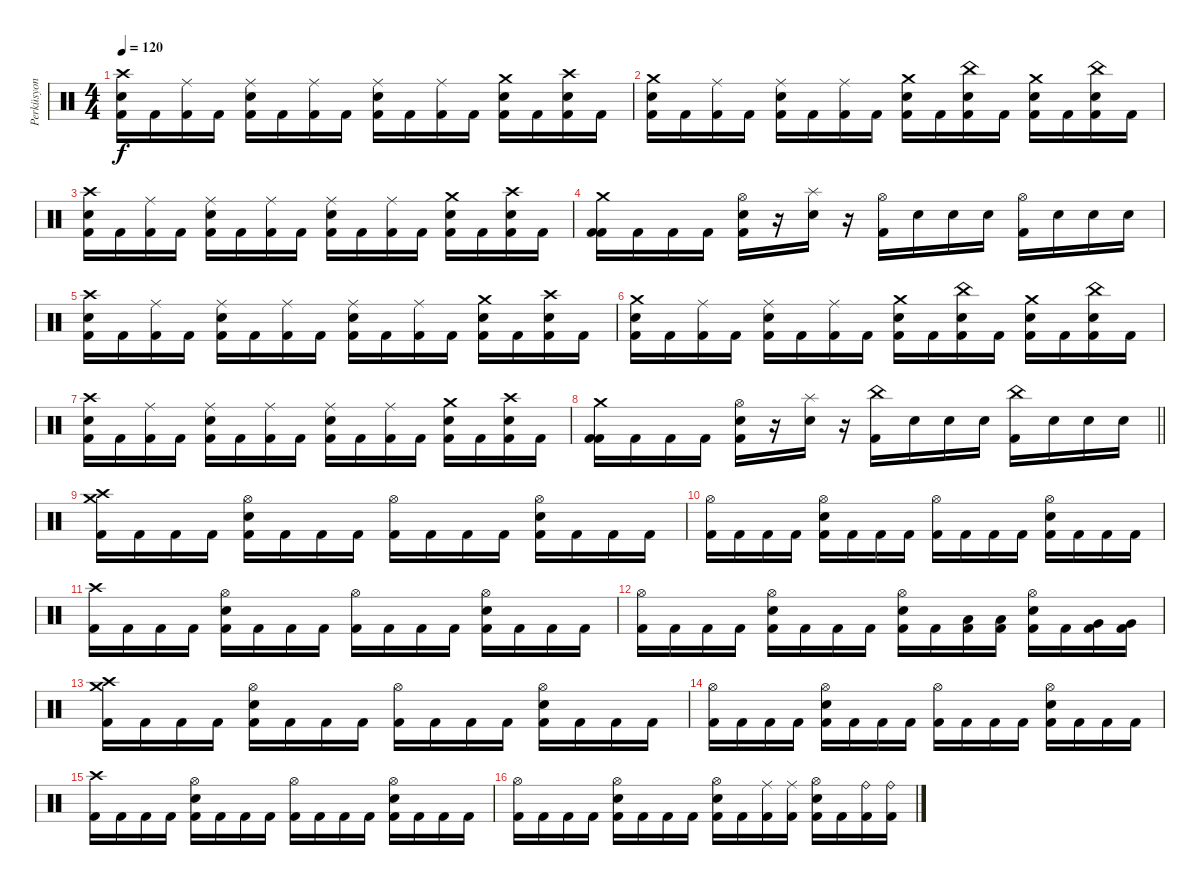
\track ("Perküsyon" "Perküsyon") {instrument percussion}
\staff {score}
\articulation defaults
\ts (4 4)
\section ("" "")
\tempo 120
\clef neutral
\ks c
("Crash high (hit)" "Snare (hit) 2" "Kick (hit) 2").16{dy f} "Kick (hit) 2".16 ("Ride (middle)" "Kick (hit) 2").16 "Kick (hit) 2".16 ("Ride (middle)" "Snare (hit) 2" "Kick (hit) 2").16 "Kick (hit) 2".16 ("Ride (middle)" "Kick (hit) 2").16 "Kick (hit) 2".16 ("Ride (middle)" "Snare (hit) 2" "Kick (hit) 2").16 "Kick (hit) 2".16 ("Ride (middle)" "Kick (hit) 2").16 "Kick (hit) 2".16 ("Crash medium (hit)" "Snare (hit) 2" "Kick (hit) 2").16 "Kick (hit) 2".16 ("Crash high (hit)" "Snare (hit) 2" "Kick (hit) 2").16 "Kick (hit) 2".16 |
("Crash medium (hit)" "Snare (hit) 2" "Kick (hit) 2").16 "Kick (hit) 2".16 ("Ride (middle)" "Kick (hit) 2").16 "Kick (hit) 2".16 ("Ride (middle)" "Snare (hit) 2" "Kick (hit) 2").16 "Kick (hit) 2".16 ("Ride (middle)" "Kick (hit) 2").16 "Kick (hit) 2".16 ("Crash medium (hit)" "Snare (hit) 2" "Kick (hit) 2").16 "Kick (hit) 2".16 ("China (hit)" "Snare (hit) 2" "Kick (hit) 2").16 "Kick (hit) 2".16 ("Crash medium (hit)" "Snare (hit) 2" "Kick (hit) 2").16 "Kick (hit) 2".16 ("China (hit)" "Snare (hit) 2" "Kick (hit) 2").16 "Kick (hit) 2".16 |
("Crash high (hit)" "Snare (hit) 2" "Kick (hit) 2").16 "Kick (hit) 2".16 ("Ride (middle)" "Kick (hit) 2").16 "Kick (hit) 2".16 ("Ride (middle)" "Snare (hit) 2" "Kick (hit) 2").16 "Kick (hit) 2".16 ("Ride (middle)" "Kick (hit) 2").16 "Kick (hit) 2".16 ("Ride (middle)" "Snare (hit) 2" "Kick (hit) 2").16 "Kick (hit) 2".16 ("Ride (middle)" "Kick (hit) 2").16 "Kick (hit) 2".16 ("Crash medium (hit)" "Snare (hit) 2" "Kick (hit) 2").16 "Kick (hit) 2".16 ("Crash high (hit)" "Snare (hit) 2" "Kick (hit) 2").16 "Kick (hit) 2".16 |
("Crash medium (hit)" "Kick (hit) 2" "Kick (hit) 2").16 "Kick (hit) 2".16 "Kick (hit) 2".16 "Kick (hit) 2".16 ("Hi-Hat (open)" "Snare (hit) 2" "Kick (hit) 2").16 r.16 ("Splash (hit)" "Snare (hit) 2").16 r.16 ("Hi-Hat (open)" "Kick (hit) 2").16 "Snare (hit) 2".16 "Snare (hit) 2".16 "Snare (hit) 2".16 ("Hi-Hat (open)" "Kick (hit) 2").16 "Snare (hit) 2".16 "Snare (hit) 2".16 "Snare (hit) 2".16 |
("Crash high (hit)" "Snare (hit) 2" "Kick (hit) 2").16 "Kick (hit) 2".16 ("Ride (middle)" "Kick (hit) 2").16 "Kick (hit) 2".16 ("Ride (middle)" "Snare (hit) 2" "Kick (hit) 2").16 "Kick (hit) 2".16 ("Ride (middle)" "Kick (hit) 2").16 "Kick (hit) 2".16 ("Ride (middle)" "Snare (hit) 2" "Kick (hit) 2").16 "Kick (hit) 2".16 ("Ride (middle)" "Kick (hit) 2").16 "Kick (hit) 2".16 ("Crash medium (hit)" "Snare (hit) 2" "Kick (hit) 2").16 "Kick (hit) 2".16 ("Crash high (hit)" "Snare (hit) 2" "Kick (hit) 2").16 "Kick (hit) 2".16 |
("Crash medium (hit)" "Snare (hit) 2" "Kick (hit) 2").16 "Kick (hit) 2".16 ("Ride (middle)" "Kick (hit) 2").16 "Kick (hit) 2".16 ("Ride (middle)" "Snare (hit) 2" "Kick (hit) 2").16 "Kick (hit) 2".16 ("Ride (middle)" "Kick (hit) 2").16 "Kick (hit) 2".16 ("Crash medium (hit)" "Snare (hit) 2" "Kick (hit) 2").16 "Kick (hit) 2".16 ("China (hit)" "Snare (hit) 2" "Kick (hit) 2").16 "Kick (hit) 2".16 ("Crash medium (hit)" "Snare (hit) 2" "Kick (hit) 2").16 "Kick (hit) 2".16 ("China (hit)" "Snare (hit) 2" "Kick (hit) 2").16 "Kick (hit) 2".16 |
("Crash high (hit)" "Snare (hit) 2" "Kick (hit) 2").16 "Kick (hit) 2".16 ("Ride (middle)" "Kick (hit) 2").16 "Kick (hit) 2".16 ("Ride (middle)" "Snare (hit) 2" "Kick (hit) 2").16 "Kick (hit) 2".16 ("Ride (middle)" "Kick (hit) 2").16 "Kick (hit) 2".16 ("Ride (middle)" "Snare (hit) 2" "Kick (hit) 2").16 "Kick (hit) 2".16 ("Ride (middle)" "Kick (hit) 2").16 "Kick (hit) 2".16 ("Crash medium (hit)" "Snare (hit) 2" "Kick (hit) 2").16 "Kick (hit) 2".16 ("Crash high (hit)" "Snare (hit) 2" "Kick (hit) 2").16 "Kick (hit) 2".16 |
\barLineRight lightlight
("Crash medium (hit)" "Kick (hit) 2" "Kick (hit) 2").16 "Kick (hit) 2".16 "Kick (hit) 2".16 "Kick (hit) 2".16 ("Hi-Hat (open)" "Snare (hit) 2" "Kick (hit) 2").16 r.16 ("Splash (hit)" "Snare (hit) 2").16 r.16 ("China (hit)" "Kick (hit) 2").16 "Snare (hit) 2".16 "Snare (hit) 2".16 "Snare (hit) 2".16 ("China (hit)" "Kick (hit) 2").16 "Snare (hit) 2".16 "Snare (hit) 2".16 "Snare (hit) 2".16 |
\section ("" "")
("Crash high (hit)" "Crash medium (hit)" "Kick (hit) 2").16 "Kick (hit) 2".16 "Kick (hit) 2".16 "Kick (hit) 2".16 ("Hi-Hat (open)" "Snare (hit) 2" "Kick (hit) 2").16 "Kick (hit) 2".16 "Kick (hit) 2".16 "Kick (hit) 2".16 ("Hi-Hat (open)" "Kick (hit) 2").16 "Kick (hit) 2".16 "Kick (hit) 2".16 "Kick (hit) 2".16 ("Hi-Hat (open)" "Snare (hit) 2" "Kick (hit) 2").16 "Kick (hit) 2".16 "Kick (hit) 2".16 "Kick (hit) 2".16 |
("Hi-Hat (open)" "Kick (hit) 2").16 "Kick (hit) 2".16 "Kick (hit) 2".16 "Kick (hit) 2".16 ("Hi-Hat (open)" "Snare (hit) 2" "Kick (hit) 2").16 "Kick (hit) 2".16 "Kick (hit) 2".16 "Kick (hit) 2".16 ("Hi-Hat (open)" "Kick (hit) 2").16 "Kick (hit) 2".16 "Kick (hit) 2".16 "Kick (hit) 2".16 ("Hi-Hat (open)" "Snare (hit) 2" "Kick (hit) 2").16 "Kick (hit) 2".16 "Kick (hit) 2".16 "Kick (hit) 2".16 |
("Crash high (hit)" "Kick (hit) 2").16 "Kick (hit) 2".16 "Kick (hit) 2".16 "Kick (hit) 2".16 ("Hi-Hat (open)" "Snare (hit) 2" "Kick (hit) 2").16 "Kick (hit) 2".16 "Kick (hit) 2".16 "Kick (hit) 2".16 ("Hi-Hat (open)" "Kick (hit) 2").16 "Kick (hit) 2".16 "Kick (hit) 2".16 "Kick (hit) 2".16 ("Hi-Hat (open)" "Snare (hit) 2" "Kick (hit) 2").16 "Kick (hit) 2".16 "Kick (hit) 2".16 "Kick (hit) 2".16 |
("Hi-Hat (open)" "Kick (hit) 2").16 "Kick (hit) 2".16 "Kick (hit) 2".16 "Kick (hit) 2".16 ("Hi-Hat (open)" "Snare (hit) 2" "Kick (hit) 2").16 "Kick (hit) 2".16 "Kick (hit) 2".16 "Kick (hit) 2".16 ("Hi-Hat (open)" "Snare (hit) 2" "Kick (hit) 2").16 "Kick (hit) 2".16 ("Low Tom (hit)" "Kick (hit) 2").16 ("Low Tom (hit)" "Kick (hit) 2").16 ("Hi-Hat (open)" "Snare (hit) 2" "Kick (hit) 2").16 "Kick (hit) 2".16 ("Very Low Tom (hit)" "Kick (hit) 2").16 ("Very Low Tom (hit)" "Kick (hit) 2").16 |
("Crash high (hit)" "Crash medium (hit)" "Kick (hit) 2").16 "Kick (hit) 2".16 "Kick (hit) 2".16 "Kick (hit) 2".16 ("Hi-Hat (open)" "Snare (hit) 2" "Kick (hit) 2").16 "Kick (hit) 2".16 "Kick (hit) 2".16 "Kick (hit) 2".16 ("Hi-Hat (open)" "Kick (hit) 2").16 "Kick (hit) 2".16 "Kick (hit) 2".16 "Kick (hit) 2".16 ("Hi-Hat (open)" "Snare (hit) 2" "Kick (hit) 2").16 "Kick (hit) 2".16 "Kick (hit) 2".16 "Kick (hit) 2".16 |
("Hi-Hat (open)" "Kick (hit) 2").16 "Kick (hit) 2".16 "Kick (hit) 2".16 "Kick (hit) 2".16 ("Hi-Hat (open)" "Snare (hit) 2" "Kick (hit) 2").16 "Kick (hit) 2".16 "Kick (hit) 2".16 "Kick (hit) 2".16 ("Hi-Hat (open)" "Kick (hit) 2").16 "Kick (hit) 2".16 "Kick (hit) 2".16 "Kick (hit) 2".16 ("Hi-Hat (open)" "Snare (hit) 2" "Kick (hit) 2").16 "Kick (hit) 2".16 "Kick (hit) 2".16 "Kick (hit) 2".16 |
("Crash high (hit)" "Kick (hit) 2").16 "Kick (hit) 2".16 "Kick (hit) 2".16 "Kick (hit) 2".16 ("Hi-Hat (open)" "Snare (hit) 2" "Kick (hit) 2").16 "Kick (hit) 2".16 "Kick (hit) 2".16 "Kick (hit) 2".16 ("Hi-Hat (open)" "Kick (hit) 2").16 "Kick (hit) 2".16 "Kick (hit) 2".16 "Kick (hit) 2".16 ("Hi-Hat (open)" "Snare (hit) 2" "Kick (hit) 2").16 "Kick (hit) 2".16 "Kick (hit) 2".16 "Kick (hit) 2".16 |
("Hi-Hat (open)" "Kick (hit) 2").16 "Kick (hit) 2".16 "Kick (hit) 2".16 "Kick (hit) 2".16 ("Hi-Hat (open)" "Snare (hit) 2" "Kick (hit) 2").16 "Kick (hit) 2".16 "Kick (hit) 2".16 "Kick (hit) 2".16 ("Hi-Hat (open)" "Snare (hit) 2" "Kick (hit) 2").16 "Kick (hit) 2".16 ("Ride (middle)" "Kick (hit) 2").16 ("Ride (middle)" "Kick (hit) 2").16 ("Hi-Hat (open)" "Snare (hit) 2" "Kick (hit) 2").16 "Kick (hit) 2".16 ("Ride (bell)" "Kick (hit) 2").16 ("Ride (bell)" "Kick (hit) 2").16
